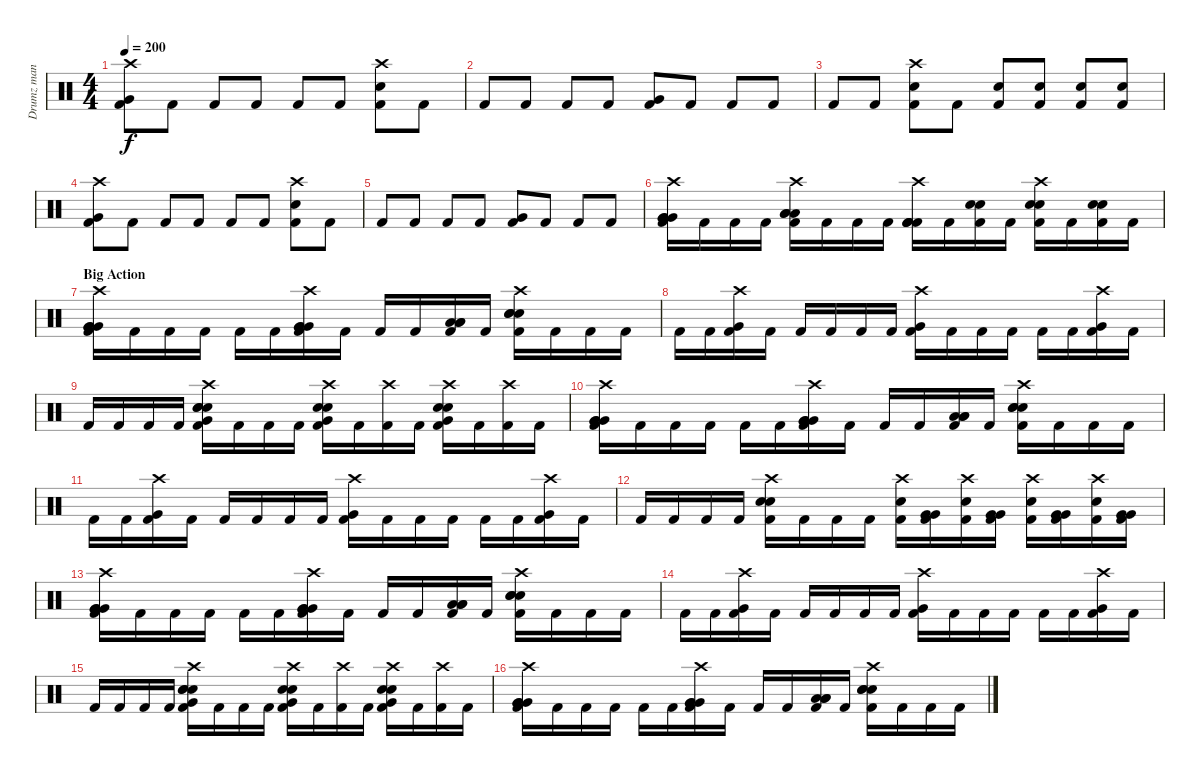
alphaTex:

\track ("Drumz man" "Drumz man") {instrument percussion}
\staff {score}
\articulation defaults
\ts (4 4)
\tempo 200
\clef neutral
\ks c
("Crash high (hit)" "Kick (hit) 2" "Very Low Tom (hit)").8{dy f} "Kick (hit) 2".8 "Kick (hit) 2".8 "Kick (hit) 2".8 "Kick (hit) 2".8 "Kick (hit) 2".8 ("Crash high (hit)" "Kick (hit) 2" "Snare (hit) 2").8 "Kick (hit) 2".8 |
"Kick (hit) 2".8 "Kick (hit) 2".8 "Kick (hit) 2".8 "Kick (hit) 2".8 ("Kick (hit) 2" "Very Low Tom (hit)").8 "Kick (hit) 2".8 "Kick (hit) 2".8 "Kick (hit) 2".8 |
"Kick (hit) 2".8 "Kick (hit) 2".8 ("Crash high (hit)" "Kick (hit) 2" "Snare (hit) 2").8 "Kick (hit) 2".8 ("Kick (hit) 2" "Electric Snare (hit)").8 ("Kick (hit) 2" "Electric Snare (hit)").8 ("Kick (hit) 2" "Electric Snare (hit)").8 ("Kick (hit) 2" "Electric Snare (hit)").8 |
("Crash high (hit)" "Kick (hit) 2" "Very Low Tom (hit)").8 "Kick (hit) 2".8 "Kick (hit) 2".8 "Kick (hit) 2".8 "Kick (hit) 2".8 "Kick (hit) 2".8 ("Crash high (hit)" "Kick (hit) 2" "Snare (hit) 2").8 "Kick (hit) 2".8 |
"Kick (hit) 2".8 "Kick (hit) 2".8 "Kick (hit) 2".8 "Kick (hit) 2".8 ("Kick (hit) 2" "Very Low Tom (hit)").8 "Kick (hit) 2".8 "Kick (hit) 2".8 "Kick (hit) 2".8 |
("Crash high (hit)" "Kick (hit) 2" "Very Low Tom (hit)" "Very Low Tom (hit)" "Very Low Tom (hit)").16 "Kick (hit) 2".16 "Kick (hit) 2".16 "Kick (hit) 2".16 ("Crash high (hit)" "Kick (hit) 2" "Low Floor Tom (hit)" "Low Floor Tom (hit)" "Low Floor Tom (hit)").16 "Kick (hit) 2".16 "Kick (hit) 2".16 "Kick (hit) 2".16 ("Crash high (hit)" "Kick (hit) 2" "Kick (hit) 2" "Kick (hit) 2" "Kick (hit) 2").16 "Kick (hit) 2".16 ("Kick (hit) 2" "Snare (hit) 2" "Electric Snare (hit)").16 "Kick (hit) 2".16 ("Crash high (hit)" "Kick (hit) 2" "Snare (hit) 2" "Electric Snare (hit)").16 "Kick (hit) 2".16 ("Kick (hit) 2" "Snare (hit) 2" "Electric Snare (hit)").16 "Kick (hit) 2".16 |
\section ("" "Big Action")
("Crash high (hit)" "Kick (hit) 2" "Very Low Tom (hit)" "Very Low Tom (hit)" "Very Low Tom (hit)").16 "Kick (hit) 2".16 "Kick (hit) 2".16 "Kick (hit) 2".16 "Kick (hit) 2".16 "Kick (hit) 2".16 ("Crash high (hit)" "Kick (hit) 2" "Very Low Tom (hit)" "Very Low Tom (hit)" "Very Low Tom (hit)").16 "Kick (hit) 2".16 "Kick (hit) 2".16 "Kick (hit) 2".16 ("Kick (hit) 2" "Low Floor Tom (hit)" "Low Floor Tom (hit)" "Low Floor Tom (hit)").16 "Kick (hit) 2".16 ("Crash high (hit)" "Snare (hit) 2" "Kick (hit) 2" "Snare (hit) 2" "Electric Snare (hit)").16 "Kick (hit) 2".16 "Kick (hit) 2".16 "Kick (hit) 2".16 |
"Kick (hit) 2".16 "Kick (hit) 2".16 ("Crash high (hit)" "Kick (hit) 2" "Very Low Tom (hit)").16 "Kick (hit) 2".16 "Kick (hit) 2".16 "Kick (hit) 2".16 "Kick (hit) 2".16 "Kick (hit) 2".16 ("Crash high (hit)" "Kick (hit) 2" "Very Low Tom (hit)").16 "Kick (hit) 2".16 "Kick (hit) 2".16 "Kick (hit) 2".16 "Kick (hit) 2".16 "Kick (hit) 2".16 ("Crash high (hit)" "Kick (hit) 2" "Very Low Tom (hit)").16 "Kick (hit) 2".16 |
"Kick (hit) 2".16 "Kick (hit) 2".16 "Kick (hit) 2".16 "Kick (hit) 2".16 ("Crash high (hit)" "Very Low Tom (hit)" "Kick (hit) 2" "Snare (hit) 2" "Snare (hit) 2" "Electric Snare (hit)").16 "Kick (hit) 2".16 "Kick (hit) 2".16 "Kick (hit) 2".16 ("Crash high (hit)" "Kick (hit) 2" "Very Low Tom (hit)" "Electric Snare (hit)" "Electric Snare (hit)").16 "Kick (hit) 2".16 ("Crash high (hit)" "Kick (hit) 2").16 "Kick (hit) 2".16 ("Crash high (hit)" "Kick (hit) 2" "Very Low Tom (hit)" "Electric Snare (hit)" "Electric Snare (hit)").16 "Kick (hit) 2".16 ("Crash high (hit)" "Kick (hit) 2").16 "Kick (hit) 2".16 |
("Crash high (hit)" "Kick (hit) 2" "Very Low Tom (hit)" "Very Low Tom (hit)" "Very Low Tom (hit)").16 "Kick (hit) 2".16 "Kick (hit) 2".16 "Kick (hit) 2".16 "Kick (hit) 2".16 "Kick (hit) 2".16 ("Crash high (hit)" "Kick (hit) 2" "Very Low Tom (hit)" "Very Low Tom (hit)" "Very Low Tom (hit)").16 "Kick (hit) 2".16 "Kick (hit) 2".16 "Kick (hit) 2".16 ("Kick (hit) 2" "Low Floor Tom (hit)" "Low Floor Tom (hit)" "Low Floor Tom (hit)").16 "Kick (hit) 2".16 ("Crash high (hit)" "Snare (hit) 2" "Kick (hit) 2" "Snare (hit) 2" "Electric Snare (hit)").16 "Kick (hit) 2".16 "Kick (hit) 2".16 "Kick (hit) 2".16 |
"Kick (hit) 2".16 "Kick (hit) 2".16 ("Crash high (hit)" "Kick (hit) 2" "Very Low Tom (hit)").16 "Kick (hit) 2".16 "Kick (hit) 2".16 "Kick (hit) 2".16 "Kick (hit) 2".16 "Kick (hit) 2".16 ("Crash high (hit)" "Kick (hit) 2" "Very Low Tom (hit)").16 "Kick (hit) 2".16 "Kick (hit) 2".16 "Kick (hit) 2".16 "Kick (hit) 2".16 "Kick (hit) 2".16 ("Crash high (hit)" "Kick (hit) 2" "Very Low Tom (hit)").16 "Kick (hit) 2".16 |
"Kick (hit) 2".16 "Kick (hit) 2".16 "Kick (hit) 2".16 "Kick (hit) 2".16 ("Crash high (hit)" "Kick (hit) 2" "Snare (hit) 2" "Snare (hit) 2").16 "Kick (hit) 2".16 "Kick (hit) 2".16 "Kick (hit) 2".16 ("Crash high (hit)" "Kick (hit) 2" "Electric Snare (hit)").16 ("Kick (hit) 2" "Very Low Tom (hit)" "Very Low Tom (hit)").16 ("Crash high (hit)" "Kick (hit) 2" "Electric Snare (hit)").16 ("Kick (hit) 2" "Very Low Tom (hit)" "Very Low Tom (hit)").16 ("Crash high (hit)" "Kick (hit) 2" "Electric Snare (hit)").16 ("Kick (hit) 2" "Very Low Tom (hit)" "Very Low Tom (hit)").16 ("Crash high (hit)" "Kick (hit) 2" "Electric Snare (hit)").16 ("Kick (hit) 2" "Very Low Tom (hit)" "Very Low Tom (hit)").16 |
("Crash high (hit)" "Kick (hit) 2" "Very Low Tom (hit)" "Very Low Tom (hit)" "Very Low Tom (hit)").16 "Kick (hit) 2".16 "Kick (hit) 2".16 "Kick (hit) 2".16 "Kick (hit) 2".16 "Kick (hit) 2".16 ("Crash high (hit)" "Kick (hit) 2" "Very Low Tom (hit)" "Very Low Tom (hit)" "Very Low Tom (hit)").16 "Kick (hit) 2".16 "Kick (hit) 2".16 "Kick (hit) 2".16 ("Kick (hit) 2" "Low Floor Tom (hit)" "Low Floor Tom (hit)" "Low Floor Tom (hit)").16 "Kick (hit) 2".16 ("Crash high (hit)" "Snare (hit) 2" "Kick (hit) 2" "Snare (hit) 2" "Electric Snare (hit)").16 "Kick (hit) 2".16 "Kick (hit) 2".16 "Kick (hit) 2".16 |
"Kick (hit) 2".16 "Kick (hit) 2".16 ("Crash high (hit)" "Kick (hit) 2" "Very Low Tom (hit)").16 "Kick (hit) 2".16 "Kick (hit) 2".16 "Kick (hit) 2".16 "Kick (hit) 2".16 "Kick (hit) 2".16 ("Crash high (hit)" "Kick (hit) 2" "Very Low Tom (hit)").16 "Kick (hit) 2".16 "Kick (hit) 2".16 "Kick (hit) 2".16 "Kick (hit) 2".16 "Kick (hit) 2".16 ("Crash high (hit)" "Kick (hit) 2" "Very Low Tom (hit)").16 "Kick (hit) 2".16 |
"Kick (hit) 2".16 "Kick (hit) 2".16 "Kick (hit) 2".16 "Kick (hit) 2".16 ("Crash high (hit)" "Very Low Tom (hit)" "Kick (hit) 2" "Snare (hit) 2" "Snare (hit) 2" "Electric Snare (hit)").16 "Kick (hit) 2".16 "Kick (hit) 2".16 "Kick (hit) 2".16 ("Crash high (hit)" "Kick (hit) 2" "Very Low Tom (hit)" "Electric Snare (hit)" "Electric Snare (hit)").16 "Kick (hit) 2".16 ("Crash high (hit)" "Kick (hit) 2").16 "Kick (hit) 2".16 ("Crash high (hit)" "Kick (hit) 2" "Very Low Tom (hit)" "Electric Snare (hit)" "Electric Snare (hit)").16 "Kick (hit) 2".16 ("Crash high (hit)" "Kick (hit) 2").16 "Kick (hit) 2".16 |
("Crash high (hit)" "Kick (hit) 2" "Very Low Tom (hit)" "Very Low Tom (hit)" "Very Low Tom (hit)").16 "Kick (hit) 2".16 "Kick (hit) 2".16 "Kick (hit) 2".16 "Kick (hit) 2".16 "Kick (hit) 2".16 ("Crash high (hit)" "Kick (hit) 2" "Very Low Tom (hit)" "Very Low Tom (hit)" "Very Low Tom (hit)").16 "Kick (hit) 2".16 "Kick (hit) 2".16 "Kick (hit) 2".16 ("Kick (hit) 2" "Low Floor Tom (hit)" "Low Floor Tom (hit)" "Low Floor Tom (hit)").16 "Kick (hit) 2".16 ("Crash high (hit)" "Snare (hit) 2" "Kick (hit) 2" "Snare (hit) 2" "Electric Snare (hit)").16 "Kick (hit) 2".16 "Kick (hit) 2".16 "Kick (hit) 2".16
